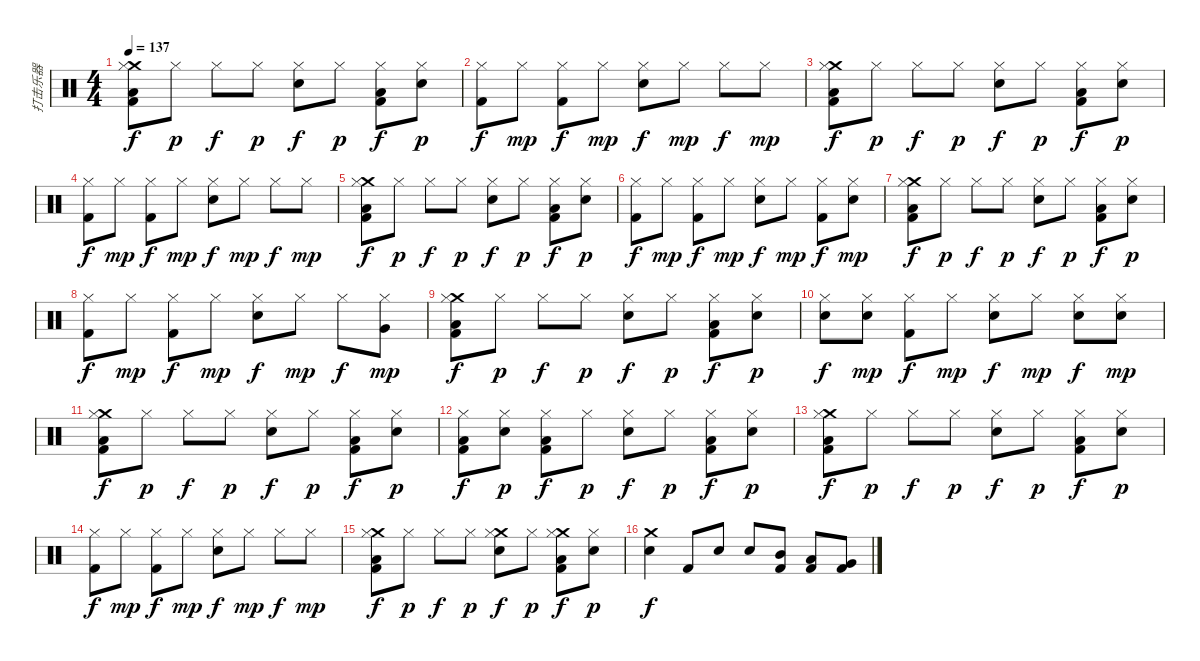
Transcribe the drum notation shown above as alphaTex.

\track ("打击乐器" "打击乐器") {instrument percussion}
\staff {score}
\articulation defaults
\ts (4 4)
\tempo 137
\clef neutral
\ks c
("Low Floor Tom (hit)" "Kick (hit) 2" "Crash medium (hit)" "Hi-Hat (closed)").8{dy f} "Hi-Hat (closed)".8{dy p} "Hi-Hat (closed)".8{dy f} "Hi-Hat (closed)".8{dy p} ("Electric Snare (hit)" "Hi-Hat (closed)").8{dy f} "Hi-Hat (closed)".8{dy p} ("Low Floor Tom (hit)" "Kick (hit) 2" "Hi-Hat (closed)").8{dy f} ("Electric Snare (hit)" "Hi-Hat (closed)").8{dy p} |
("Kick (hit) 2" "Hi-Hat (closed)").8{dy f} "Hi-Hat (closed)".8{dy mp} ("Kick (hit) 2" "Hi-Hat (closed)").8{dy f} "Hi-Hat (closed)".8{dy mp} ("Electric Snare (hit)" "Hi-Hat (closed)").8{dy f} "Hi-Hat (closed)".8{dy mp} "Hi-Hat (closed)".8{dy f} "Hi-Hat (closed)".8{dy mp} |
("Low Floor Tom (hit)" "Kick (hit) 2" "Crash medium (hit)" "Hi-Hat (closed)").8{dy f} "Hi-Hat (closed)".8{dy p} "Hi-Hat (closed)".8{dy f} "Hi-Hat (closed)".8{dy p} ("Electric Snare (hit)" "Hi-Hat (closed)").8{dy f} "Hi-Hat (closed)".8{dy p} ("Low Floor Tom (hit)" "Kick (hit) 2" "Hi-Hat (closed)").8{dy f} ("Electric Snare (hit)" "Hi-Hat (closed)").8{dy p} |
("Kick (hit) 2" "Hi-Hat (closed)").8{dy f} "Hi-Hat (closed)".8{dy mp} ("Kick (hit) 2" "Hi-Hat (closed)").8{dy f} "Hi-Hat (closed)".8{dy mp} ("Electric Snare (hit)" "Hi-Hat (closed)").8{dy f} "Hi-Hat (closed)".8{dy mp} "Hi-Hat (closed)".8{dy f} "Hi-Hat (closed)".8{dy mp} |
("Low Floor Tom (hit)" "Kick (hit) 2" "Crash medium (hit)" "Hi-Hat (closed)").8{dy f} "Hi-Hat (closed)".8{dy p} "Hi-Hat (closed)".8{dy f} "Hi-Hat (closed)".8{dy p} ("Electric Snare (hit)" "Hi-Hat (closed)").8{dy f} "Hi-Hat (closed)".8{dy p} ("Low Floor Tom (hit)" "Kick (hit) 2" "Hi-Hat (closed)").8{dy f} ("Electric Snare (hit)" "Hi-Hat (closed)").8{dy p} |
("Kick (hit) 2" "Hi-Hat (closed)").8{dy f} "Hi-Hat (closed)".8{dy mp} ("Kick (hit) 2" "Hi-Hat (closed)").8{dy f} "Hi-Hat (closed)".8{dy mp} ("Electric Snare (hit)" "Hi-Hat (closed)").8{dy f} "Hi-Hat (closed)".8{dy mp} ("Kick (hit) 2" "Hi-Hat (closed)").8{dy f} ("Electric Snare (hit)" "Hi-Hat (closed)").8{dy mp} |
("Low Floor Tom (hit)" "Kick (hit) 2" "Crash medium (hit)" "Hi-Hat (closed)").8{dy f} "Hi-Hat (closed)".8{dy p} "Hi-Hat (closed)".8{dy f} "Hi-Hat (closed)".8{dy p} ("Electric Snare (hit)" "Hi-Hat (closed)").8{dy f} "Hi-Hat (closed)".8{dy p} ("Low Floor Tom (hit)" "Kick (hit) 2" "Hi-Hat (closed)").8{dy f} ("Electric Snare (hit)" "Hi-Hat (closed)").8{dy p} |
("Kick (hit) 2" "Hi-Hat (closed)").8{dy f} "Hi-Hat (closed)".8{dy mp} ("Kick (hit) 2" "Hi-Hat (closed)").8{dy f} "Hi-Hat (closed)".8{dy mp} ("Electric Snare (hit)" "Hi-Hat (closed)").8{dy f} "Hi-Hat (closed)".8{dy mp} "Hi-Hat (closed)".8{dy f} ("Very Low Tom (hit)" "Hi-Hat (closed)").8{dy mp} |
("Low Floor Tom (hit)" "Kick (hit) 2" "Crash medium (hit)" "Hi-Hat (closed)").8{dy f} "Hi-Hat (closed)".8{dy p} "Hi-Hat (closed)".8{dy f} "Hi-Hat (closed)".8{dy p} ("Electric Snare (hit)" "Hi-Hat (closed)").8{dy f} "Hi-Hat (closed)".8{dy p} ("Low Floor Tom (hit)" "Kick (hit) 2" "Hi-Hat (closed)").8{dy f} ("Electric Snare (hit)" "Hi-Hat (closed)").8{dy p} |
("Electric Snare (hit)" "Hi-Hat (closed)").8{dy f} ("Electric Snare (hit)" "Hi-Hat (closed)").8{dy mp} ("Kick (hit) 2" "Hi-Hat (closed)").8{dy f} "Hi-Hat (closed)".8{dy mp} ("Electric Snare (hit)" "Hi-Hat (closed)").8{dy f} "Hi-Hat (closed)".8{dy mp} ("Electric Snare (hit)" "Hi-Hat (closed)").8{dy f} ("Electric Snare (hit)" "Hi-Hat (closed)").8{dy mp} |
("Low Floor Tom (hit)" "Kick (hit) 2" "Crash medium (hit)" "Hi-Hat (closed)").8{dy f} "Hi-Hat (closed)".8{dy p} "Hi-Hat (closed)".8{dy f} "Hi-Hat (closed)".8{dy p} ("Electric Snare (hit)" "Hi-Hat (closed)").8{dy f} "Hi-Hat (closed)".8{dy p} ("Low Floor Tom (hit)" "Kick (hit) 2" "Hi-Hat (closed)").8{dy f} ("Electric Snare (hit)" "Hi-Hat (closed)").8{dy p} |
("Low Floor Tom (hit)" "Kick (hit) 2" "Hi-Hat (closed)").8{dy f} ("Electric Snare (hit)" "Hi-Hat (closed)").8{dy p} ("Low Floor Tom (hit)" "Kick (hit) 2" "Hi-Hat (closed)").8{dy f} "Hi-Hat (closed)".8{dy p} ("Electric Snare (hit)" "Hi-Hat (closed)").8{dy f} "Hi-Hat (closed)".8{dy p} ("Low Floor Tom (hit)" "Kick (hit) 2" "Hi-Hat (closed)").8{dy f} ("Electric Snare (hit)" "Hi-Hat (closed)").8{dy p} |
("Low Floor Tom (hit)" "Kick (hit) 2" "Crash medium (hit)" "Hi-Hat (closed)").8{dy f} "Hi-Hat (closed)".8{dy p} "Hi-Hat (closed)".8{dy f} "Hi-Hat (closed)".8{dy p} ("Electric Snare (hit)" "Hi-Hat (closed)").8{dy f} "Hi-Hat (closed)".8{dy p} ("Low Floor Tom (hit)" "Kick (hit) 2" "Hi-Hat (closed)").8{dy f} ("Electric Snare (hit)" "Hi-Hat (closed)").8{dy p} |
("Kick (hit) 2" "Hi-Hat (closed)").8{dy f} "Hi-Hat (closed)".8{dy mp} ("Kick (hit) 2" "Hi-Hat (closed)").8{dy f} "Hi-Hat (closed)".8{dy mp} ("Electric Snare (hit)" "Hi-Hat (closed)").8{dy f} "Hi-Hat (closed)".8{dy mp} "Hi-Hat (closed)".8{dy f} "Hi-Hat (closed)".8{dy mp} |
("Low Floor Tom (hit)" "Kick (hit) 2" "Crash medium (hit)" "Hi-Hat (closed)").8{dy f} "Hi-Hat (closed)".8{dy p} "Hi-Hat (closed)".8{dy f} "Hi-Hat (closed)".8{dy p} ("Crash medium (hit)" "Electric Snare (hit)" "Hi-Hat (closed)").8{dy f} "Hi-Hat (closed)".8{dy p} ("Low Floor Tom (hit)" "Kick (hit) 2" "Crash medium (hit)" "Hi-Hat (closed)").8{dy f} ("Electric Snare (hit)" "Hi-Hat (closed)").8{dy p} |
("Crash medium (hit)" "Electric Snare (hit)").4{dy f} "Kick (hit) 2".8 "Electric Snare (hit)".8 "Electric Snare (hit)".8 ("Mid Tom (hit)" "Kick (hit) 2").8 ("Low Tom (hit)" "Kick (hit) 2").8 ("Very Low Tom (hit)" "Kick (hit) 2").8
